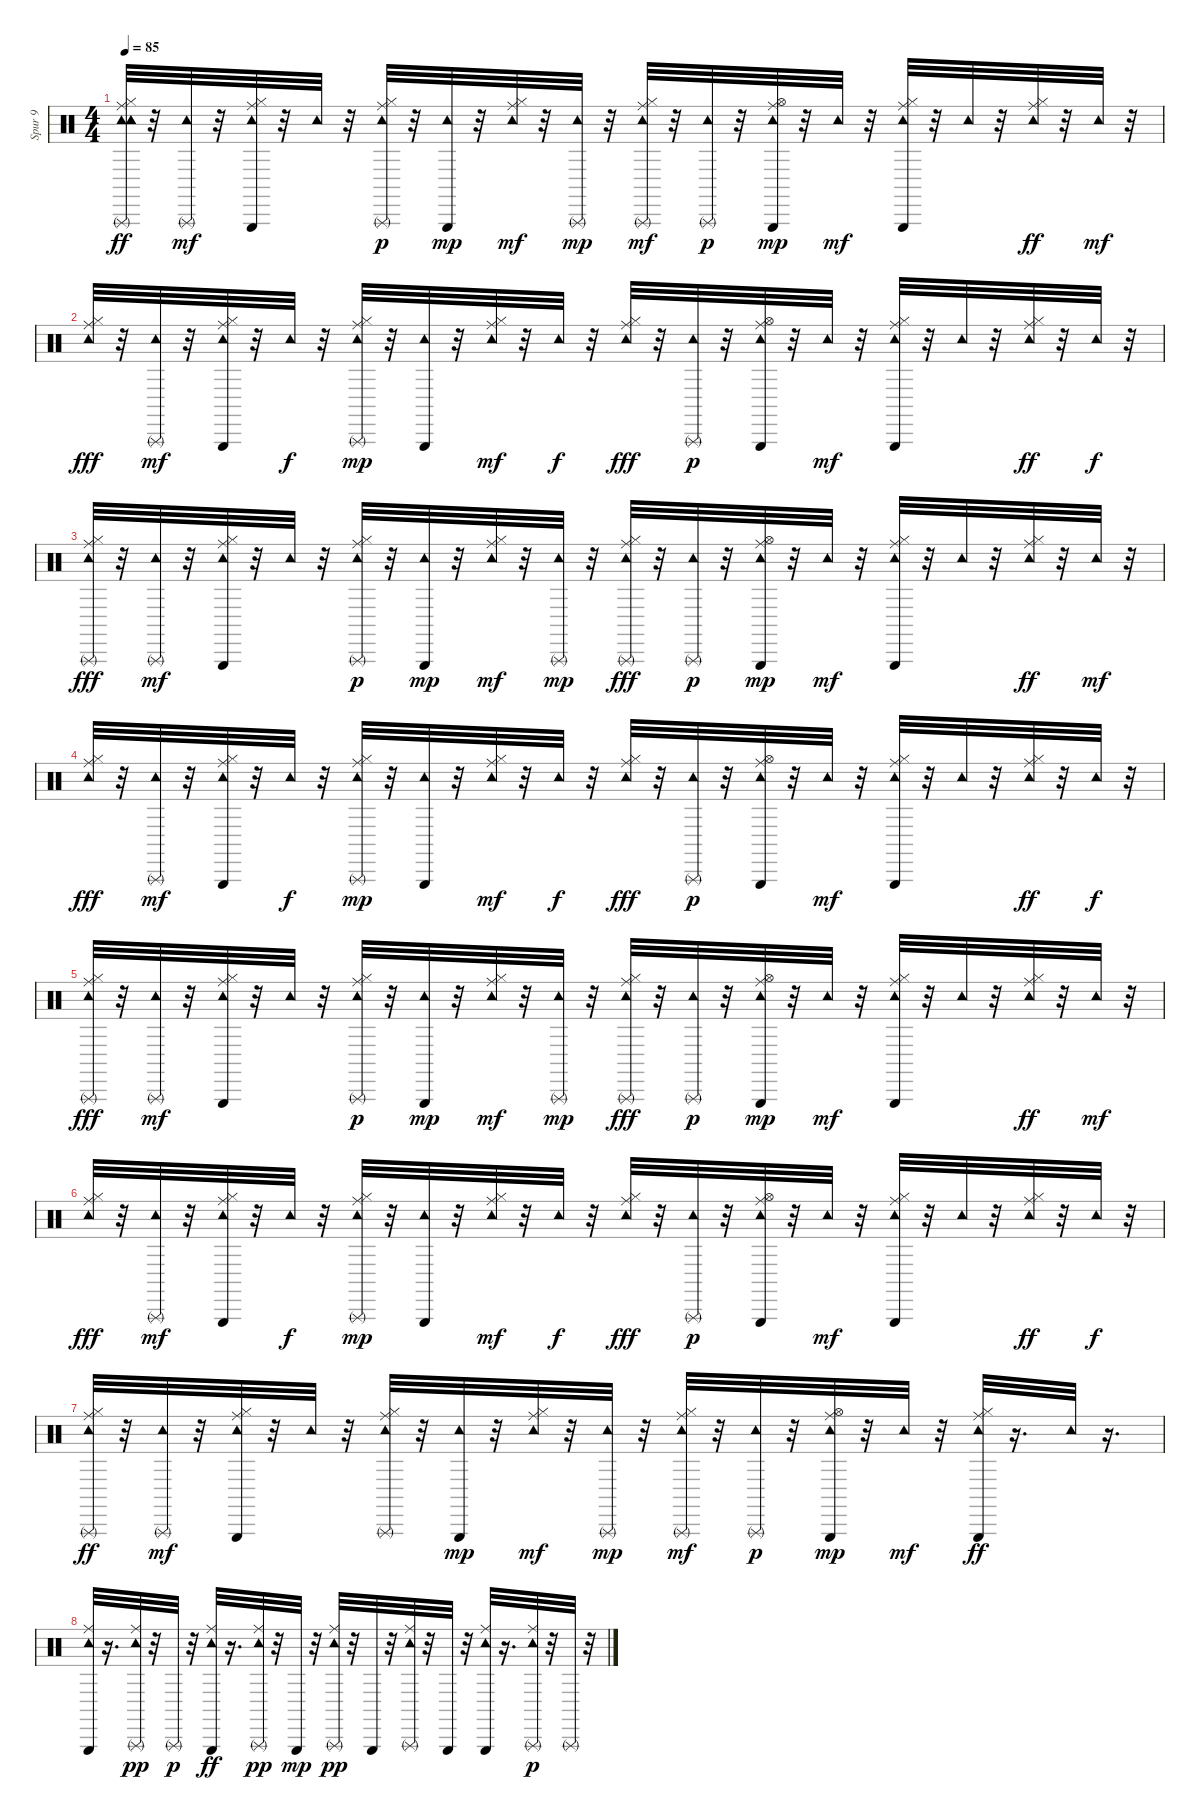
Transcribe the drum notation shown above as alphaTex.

\track ("Spur 9" "Spur 9") {instrument percussion}
\staff {score}
\articulation defaults
\ts (4 4)
\tempo 85
\clef neutral
\ks c
("Tambourine (hit)" "Triangle (rnute)" "Hi-Hat (closed)" "Ride (middle)" "Tambourine (hit)" "Tambourine (hit)").32{dy ff} r.32 ("Tambourine (hit)" "Triangle (rnute)").32{dy mf} r.32 ("Ride (middle)" "Triangle (hit)" "Hi-Hat (closed)" "Tambourine (hit)").32 r.32 "Tambourine (hit)".32 r.32 ("Hi-Hat (closed)" "Ride (middle)" "Tambourine (hit)" "Triangle (rnute)").32{dy p} r.32 ("Tambourine (hit)" "Triangle (hit)").32{dy mp} r.32 ("Hi-Hat (closed)" "Ride (middle)" "Tambourine (hit)").32{dy mf} r.32 ("Tambourine (hit)" "Triangle (rnute)").32{dy mp} r.32 ("Triangle (rnute)" "Hi-Hat (closed)" "Ride (middle)" "Tambourine (hit)").32{dy mf} r.32 ("Tambourine (hit)" "Triangle (rnute)").32{dy p} r.32 ("Hi-Hat (open)" "Ride (middle)" "Tambourine (hit)" "Triangle (hit)").32{dy mp} r.32 "Tambourine (hit)".32{dy mf} r.32 ("Hi-Hat (closed)" "Ride (middle)" "Triangle (hit)" "Tambourine (hit)").32 r.32 "Tambourine (hit)".32 r.32 ("Ride (middle)" "Tambourine (hit)" "Hi-Hat (closed)").32{dy ff} r.32 "Tambourine (hit)".32{dy mf} r.32 |
("Tambourine (hit)" "Hi-Hat (closed)" "Ride (middle)").32{dy fff} r.32 ("Tambourine (hit)" "Triangle (rnute)").32{dy mf} r.32 ("Hi-Hat (closed)" "Ride (middle)" "Triangle (hit)" "Tambourine (hit)").32 r.32 "Tambourine (hit)".32{dy f} r.32 ("Hi-Hat (closed)" "Ride (middle)" "Tambourine (hit)" "Triangle (rnute)").32{dy mp} r.32 ("Tambourine (hit)" "Triangle (hit)").32 r.32 ("Hi-Hat (closed)" "Ride (middle)" "Tambourine (hit)").32{dy mf} r.32 "Tambourine (hit)".32{dy f} r.32 ("Tambourine (hit)" "Hi-Hat (closed)" "Ride (middle)").32{dy fff} r.32 ("Tambourine (hit)" "Triangle (rnute)").32{dy p} r.32 ("Hi-Hat (open)" "Ride (middle)" "Tambourine (hit)" "Triangle (hit)").32 r.32 "Tambourine (hit)".32{dy mf} r.32 ("Hi-Hat (closed)" "Ride (middle)" "Triangle (hit)" "Tambourine (hit)").32 r.32 "Tambourine (hit)".32 r.32 ("Ride (middle)" "Tambourine (hit)" "Hi-Hat (closed)").32{dy ff} r.32 "Tambourine (hit)".32{dy f} r.32 |
("Tambourine (hit)" "Hi-Hat (closed)" "Ride (middle)" "Triangle (rnute)").32{dy fff} r.32 ("Tambourine (hit)" "Triangle (rnute)").32{dy mf} r.32 ("Ride (middle)" "Triangle (hit)" "Hi-Hat (closed)" "Tambourine (hit)").32 r.32 "Tambourine (hit)".32 r.32 ("Hi-Hat (closed)" "Ride (middle)" "Tambourine (hit)" "Triangle (rnute)").32{dy p} r.32 ("Tambourine (hit)" "Triangle (hit)").32{dy mp} r.32 ("Ride (middle)" "Hi-Hat (closed)" "Tambourine (hit)").32{dy mf} r.32 ("Tambourine (hit)" "Triangle (rnute)").32{dy mp} r.32 ("Ride (middle)" "Tambourine (hit)" "Triangle (rnute)" "Hi-Hat (closed)").32{dy fff} r.32 ("Tambourine (hit)" "Triangle (rnute)").32{dy p} r.32 ("Tambourine (hit)" "Hi-Hat (open)" "Ride (middle)" "Triangle (hit)").32{dy mp} r.32 "Tambourine (hit)".32{dy mf} r.32 ("Hi-Hat (closed)" "Ride (middle)" "Triangle (hit)" "Tambourine (hit)").32 r.32 "Tambourine (hit)".32 r.32 ("Ride (middle)" "Tambourine (hit)" "Hi-Hat (closed)").32{dy ff} r.32 "Tambourine (hit)".32{dy mf} r.32 |
("Tambourine (hit)" "Hi-Hat (closed)" "Ride (middle)").32{dy fff} r.32 ("Tambourine (hit)" "Triangle (rnute)").32{dy mf} r.32 ("Hi-Hat (closed)" "Ride (middle)" "Triangle (hit)" "Tambourine (hit)").32 r.32 "Tambourine (hit)".32{dy f} r.32 ("Hi-Hat (closed)" "Ride (middle)" "Tambourine (hit)" "Triangle (rnute)").32{dy mp} r.32 ("Tambourine (hit)" "Triangle (hit)").32 r.32 ("Hi-Hat (closed)" "Ride (middle)" "Tambourine (hit)").32{dy mf} r.32 "Tambourine (hit)".32{dy f} r.32 ("Tambourine (hit)" "Hi-Hat (closed)" "Ride (middle)").32{dy fff} r.32 ("Tambourine (hit)" "Triangle (rnute)").32{dy p} r.32 ("Hi-Hat (open)" "Ride (middle)" "Tambourine (hit)" "Triangle (hit)").32 r.32 "Tambourine (hit)".32{dy mf} r.32 ("Hi-Hat (closed)" "Ride (middle)" "Triangle (hit)" "Tambourine (hit)").32 r.32 "Tambourine (hit)".32 r.32 ("Ride (middle)" "Tambourine (hit)" "Hi-Hat (closed)").32{dy ff} r.32 "Tambourine (hit)".32{dy f} r.32 |
("Tambourine (hit)" "Hi-Hat (closed)" "Ride (middle)" "Triangle (rnute)").32{dy fff} r.32 ("Tambourine (hit)" "Triangle (rnute)").32{dy mf} r.32 ("Ride (middle)" "Triangle (hit)" "Hi-Hat (closed)" "Tambourine (hit)").32 r.32 "Tambourine (hit)".32 r.32 ("Hi-Hat (closed)" "Ride (middle)" "Tambourine (hit)" "Triangle (rnute)").32{dy p} r.32 ("Tambourine (hit)" "Triangle (hit)").32{dy mp} r.32 ("Ride (middle)" "Hi-Hat (closed)" "Tambourine (hit)").32{dy mf} r.32 ("Tambourine (hit)" "Triangle (rnute)").32{dy mp} r.32 ("Ride (middle)" "Tambourine (hit)" "Triangle (rnute)" "Hi-Hat (closed)").32{dy fff} r.32 ("Tambourine (hit)" "Triangle (rnute)").32{dy p} r.32 ("Tambourine (hit)" "Hi-Hat (open)" "Ride (middle)" "Triangle (hit)").32{dy mp} r.32 "Tambourine (hit)".32{dy mf} r.32 ("Hi-Hat (closed)" "Ride (middle)" "Triangle (hit)" "Tambourine (hit)").32 r.32 "Tambourine (hit)".32 r.32 ("Ride (middle)" "Tambourine (hit)" "Hi-Hat (closed)").32{dy ff} r.32 "Tambourine (hit)".32{dy mf} r.32 |
("Tambourine (hit)" "Hi-Hat (closed)" "Ride (middle)").32{dy fff} r.32 ("Tambourine (hit)" "Triangle (rnute)").32{dy mf} r.32 ("Hi-Hat (closed)" "Ride (middle)" "Triangle (hit)" "Tambourine (hit)").32 r.32 "Tambourine (hit)".32{dy f} r.32 ("Hi-Hat (closed)" "Ride (middle)" "Tambourine (hit)" "Triangle (rnute)").32{dy mp} r.32 ("Tambourine (hit)" "Triangle (hit)").32 r.32 ("Hi-Hat (closed)" "Ride (middle)" "Tambourine (hit)").32{dy mf} r.32 "Tambourine (hit)".32{dy f} r.32 ("Tambourine (hit)" "Hi-Hat (closed)" "Ride (middle)").32{dy fff} r.32 ("Tambourine (hit)" "Triangle (rnute)").32{dy p} r.32 ("Hi-Hat (open)" "Ride (middle)" "Tambourine (hit)" "Triangle (hit)").32 r.32 "Tambourine (hit)".32{dy mf} r.32 ("Hi-Hat (closed)" "Ride (middle)" "Triangle (hit)" "Tambourine (hit)").32 r.32 "Tambourine (hit)".32 r.32 ("Ride (middle)" "Tambourine (hit)" "Hi-Hat (closed)").32{dy ff} r.32 "Tambourine (hit)".32{dy f} r.32 |
("Hi-Hat (closed)" "Triangle (rnute)" "Tambourine (hit)" "Ride (middle)").32{dy ff} r.32 ("Tambourine (hit)" "Triangle (rnute)").32{dy mf} r.32 ("Triangle (hit)" "Hi-Hat (closed)" "Ride (middle)" "Tambourine (hit)").32 r.32 "Tambourine (hit)".32 r.32 ("Triangle (rnute)" "Ride (middle)" "Hi-Hat (closed)" "Tambourine (hit)").32 r.32 ("Tambourine (hit)" "Triangle (hit)").32{dy mp} r.32 ("Ride (middle)" "Hi-Hat (closed)" "Tambourine (hit)").32{dy mf} r.32 ("Tambourine (hit)" "Triangle (rnute)").32{dy mp} r.32 ("Hi-Hat (closed)" "Triangle (rnute)" "Ride (middle)" "Tambourine (hit)").32{dy mf} r.32 ("Tambourine (hit)" "Triangle (rnute)").32{dy p} r.32 ("Ride (middle)" "Tambourine (hit)" "Hi-Hat (open)" "Triangle (hit)").32{dy mp} r.32 "Tambourine (hit)".32{dy mf} r.32 ("Ride (middle)" "Hi-Hat (closed)" "Triangle (hit)" "Tambourine (hit)").32{dy ff} r.16{d} "Tambourine (hit)".32 r.16{d} |
("Triangle (hit)" "Ride (middle)" "Tambourine (hit)").32 r.16{d} ("Triangle (rnute)" "Tambourine (hit)" "Ride (middle)").32{dy pp} r.32 "Triangle (rnute)".32{dy p} r.32 ("Triangle (hit)" "Tambourine (hit)" "Ride (middle)").32{dy ff} r.16{d} ("Ride (middle)" "Tambourine (hit)" "Triangle (rnute)").32{dy pp} r.32 "Triangle (hit)".32{dy mp} r.32 ("Triangle (rnute)" "Ride (middle)" "Tambourine (hit)").32{dy pp} r.32 "Triangle (hit)".32 r.32 ("Tambourine (hit)" "Triangle (rnute)" "Ride (middle)").32 r.32 "Triangle (hit)".32 r.32 ("Tambourine (hit)" "Ride (middle)" "Triangle (hit)").32 r.16{d} ("Tambourine (hit)" "Triangle (rnute)" "Ride (middle)").32{dy p} r.32 "Triangle (rnute)".32 r.32
